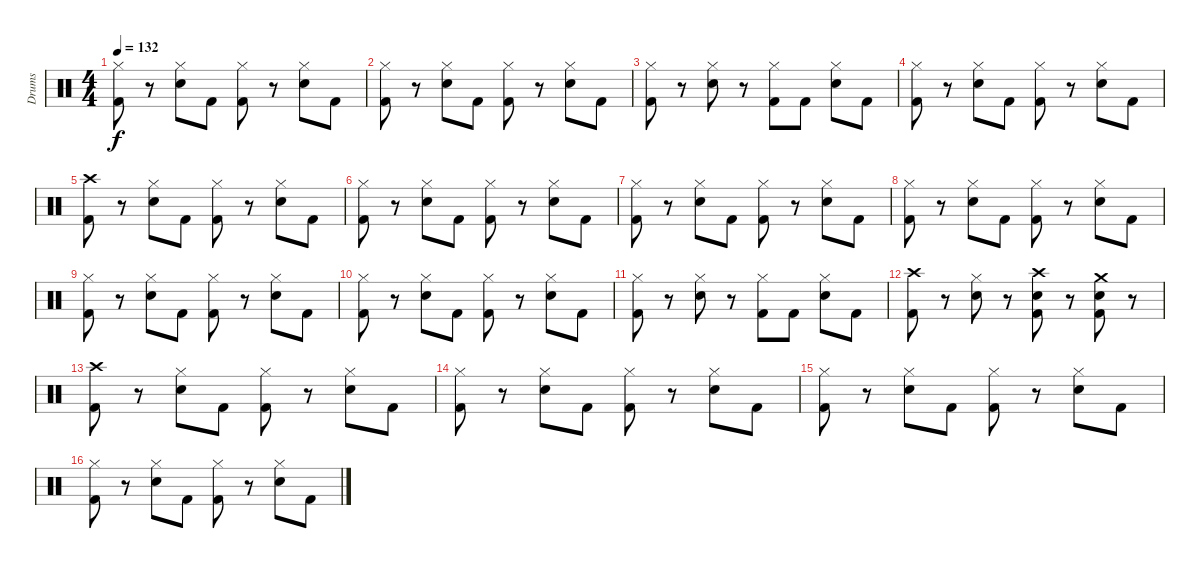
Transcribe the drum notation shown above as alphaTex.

\track ("Drums" "Drums") {instrument percussion}
\staff {score}
\articulation defaults
\ts (4 4)
\tempo 132
\clef neutral
\ks c
("Hi-Hat (closed)" "Kick (hit) 2").8{dy f} r.8 ("Electric Snare (hit)" "Hi-Hat (closed)").8 "Kick (hit) 2".8 ("Kick (hit) 2" "Hi-Hat (closed)").8 r.8 ("Electric Snare (hit)" "Hi-Hat (closed)").8 "Kick (hit) 2".8 |
("Hi-Hat (closed)" "Kick (hit) 2").8 r.8 ("Hi-Hat (closed)" "Electric Snare (hit)").8 "Kick (hit) 2".8 ("Hi-Hat (closed)" "Kick (hit) 2").8 r.8 ("Hi-Hat (closed)" "Electric Snare (hit)").8 "Kick (hit) 2".8 |
("Hi-Hat (closed)" "Kick (hit) 2").8 r.8 ("Hi-Hat (closed)" "Electric Snare (hit)").8 r.8 ("Hi-Hat (closed)" "Kick (hit) 2").8 "Kick (hit) 2".8 ("Hi-Hat (closed)" "Electric Snare (hit)").8 "Kick (hit) 2".8 |
("Kick (hit) 2" "Hi-Hat (closed)").8 r.8 ("Hi-Hat (closed)" "Electric Snare (hit)").8 "Kick (hit) 2".8 ("Hi-Hat (closed)" "Kick (hit) 2").8 r.8 ("Hi-Hat (closed)" "Electric Snare (hit)").8 "Kick (hit) 2".8 |
("Crash high (hit)" "Kick (hit) 2").8 r.8 ("Hi-Hat (closed)" "Electric Snare (hit)").8 "Kick (hit) 2".8 ("Hi-Hat (closed)" "Kick (hit) 2").8 r.8 ("Hi-Hat (closed)" "Electric Snare (hit)").8 "Kick (hit) 2".8 |
("Hi-Hat (closed)" "Kick (hit) 2").8 r.8 ("Electric Snare (hit)" "Hi-Hat (closed)").8 "Kick (hit) 2".8 ("Kick (hit) 2" "Hi-Hat (closed)").8 r.8 ("Electric Snare (hit)" "Hi-Hat (closed)").8 "Kick (hit) 2".8 |
("Hi-Hat (closed)" "Kick (hit) 2").8 r.8 ("Electric Snare (hit)" "Hi-Hat (closed)").8 "Kick (hit) 2".8 ("Kick (hit) 2" "Hi-Hat (closed)").8 r.8 ("Electric Snare (hit)" "Hi-Hat (closed)").8 "Kick (hit) 2".8 |
("Hi-Hat (closed)" "Kick (hit) 2").8 r.8 ("Electric Snare (hit)" "Hi-Hat (closed)").8 "Kick (hit) 2".8 ("Kick (hit) 2" "Hi-Hat (closed)").8 r.8 ("Electric Snare (hit)" "Hi-Hat (closed)").8 "Kick (hit) 2".8 |
("Hi-Hat (closed)" "Kick (hit) 2").8 r.8 ("Electric Snare (hit)" "Hi-Hat (closed)").8 "Kick (hit) 2".8 ("Kick (hit) 2" "Hi-Hat (closed)").8 r.8 ("Electric Snare (hit)" "Hi-Hat (closed)").8 "Kick (hit) 2".8 |
("Hi-Hat (closed)" "Kick (hit) 2").8 r.8 ("Hi-Hat (closed)" "Electric Snare (hit)").8 "Kick (hit) 2".8 ("Hi-Hat (closed)" "Kick (hit) 2").8 r.8 ("Hi-Hat (closed)" "Electric Snare (hit)").8 "Kick (hit) 2".8 |
("Hi-Hat (closed)" "Kick (hit) 2").8 r.8 ("Hi-Hat (closed)" "Electric Snare (hit)").8 r.8 ("Hi-Hat (closed)" "Kick (hit) 2").8 "Kick (hit) 2".8 ("Hi-Hat (closed)" "Electric Snare (hit)").8 "Kick (hit) 2".8 |
("Kick (hit) 2" "Crash high (hit)").8 r.8 ("Hi-Hat (closed)" "Electric Snare (hit)").8 r.8 ("Electric Snare (hit)" "Kick (hit) 2" "Crash high (hit)").8 r.8 ("Electric Snare (hit)" "Kick (hit) 2" "Crash medium (hit)").8 r.8 |
("Crash high (hit)" "Kick (hit) 2").8 r.8 ("Hi-Hat (closed)" "Electric Snare (hit)").8 "Kick (hit) 2".8 ("Hi-Hat (closed)" "Kick (hit) 2").8 r.8 ("Hi-Hat (closed)" "Electric Snare (hit)").8 "Kick (hit) 2".8 |
("Hi-Hat (closed)" "Kick (hit) 2").8 r.8 ("Electric Snare (hit)" "Hi-Hat (closed)").8 "Kick (hit) 2".8 ("Kick (hit) 2" "Hi-Hat (closed)").8 r.8 ("Electric Snare (hit)" "Hi-Hat (closed)").8 "Kick (hit) 2".8 |
("Hi-Hat (closed)" "Kick (hit) 2").8 r.8 ("Electric Snare (hit)" "Hi-Hat (closed)").8 "Kick (hit) 2".8 ("Kick (hit) 2" "Hi-Hat (closed)").8 r.8 ("Electric Snare (hit)" "Hi-Hat (closed)").8 "Kick (hit) 2".8 |
("Hi-Hat (closed)" "Kick (hit) 2").8 r.8 ("Electric Snare (hit)" "Hi-Hat (closed)").8 "Kick (hit) 2".8 ("Kick (hit) 2" "Hi-Hat (closed)").8 r.8 ("Electric Snare (hit)" "Hi-Hat (closed)").8 "Kick (hit) 2".8
